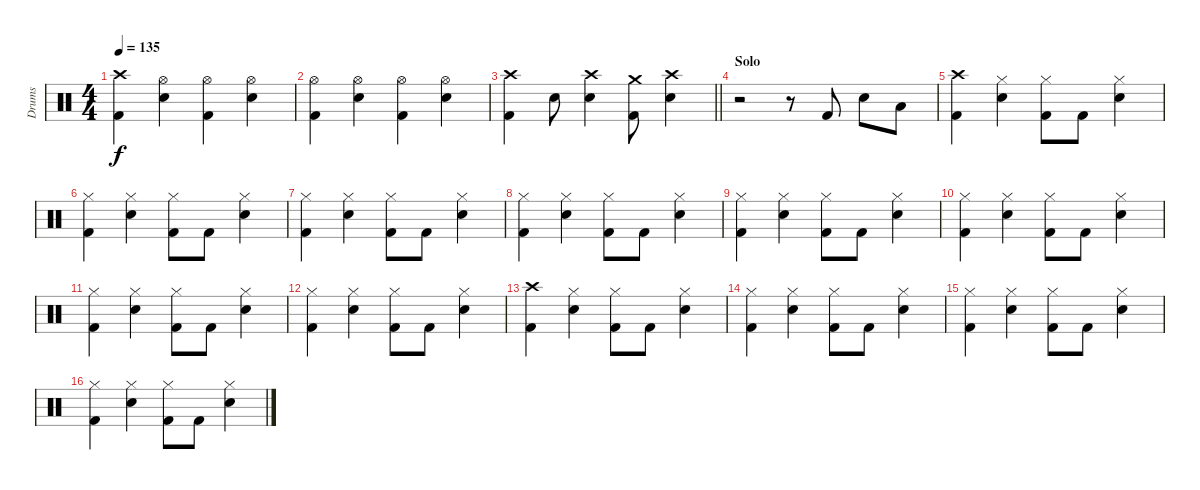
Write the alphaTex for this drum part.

\track ("Drums" "Drums") {instrument percussion}
\staff {score}
\articulation defaults
\ts (4 4)
\tempo 135
\clef neutral
\ks c
("Crash high (hit)" "Kick (hit) 2").4{dy f} ("Hi-Hat (open)" "Snare (hit) 2").4 ("Hi-Hat (open)" "Kick (hit) 2").4 ("Hi-Hat (open)" "Snare (hit) 2").4 |
("Hi-Hat (open)" "Kick (hit) 2").4 ("Hi-Hat (open)" "Snare (hit) 2").4 ("Hi-Hat (open)" "Kick (hit) 2").4 ("Hi-Hat (open)" "Snare (hit) 2").4 |
\barLineRight lightlight
("Crash high (hit)" "Kick (hit) 2").4 "Snare (hit) 2".8 ("Crash high (hit)" "Snare (hit) 2").4 ("Crash medium (hit)" "Kick (hit) 2").8 ("Crash high (hit)" "Snare (hit) 2").4 |
\section ("" "Solo")
r.2 r.8 "Kick (hit) 2".8 "Snare (hit) 2".8 "Low Tom (hit)".8 |
("Crash high (hit)" "Kick (hit) 2").4 ("Hi-Hat (closed)" "Snare (hit) 2").4 ("Hi-Hat (closed)" "Kick (hit) 2").8 "Kick (hit) 2".8 ("Hi-Hat (closed)" "Snare (hit) 2").4 |
("Hi-Hat (closed)" "Kick (hit) 2").4 ("Hi-Hat (closed)" "Snare (hit) 2").4 ("Hi-Hat (closed)" "Kick (hit) 2").8 "Kick (hit) 2".8 ("Hi-Hat (closed)" "Snare (hit) 2").4 |
("Hi-Hat (closed)" "Kick (hit) 2").4 ("Hi-Hat (closed)" "Snare (hit) 2").4 ("Hi-Hat (closed)" "Kick (hit) 2").8 "Kick (hit) 2".8 ("Hi-Hat (closed)" "Snare (hit) 2").4 |
("Hi-Hat (closed)" "Kick (hit) 2").4 ("Hi-Hat (closed)" "Snare (hit) 2").4 ("Hi-Hat (closed)" "Kick (hit) 2").8 "Kick (hit) 2".8 ("Hi-Hat (closed)" "Snare (hit) 2").4 |
("Hi-Hat (closed)" "Kick (hit) 2").4 ("Hi-Hat (closed)" "Snare (hit) 2").4 ("Hi-Hat (closed)" "Kick (hit) 2").8 "Kick (hit) 2".8 ("Hi-Hat (closed)" "Snare (hit) 2").4 |
("Hi-Hat (closed)" "Kick (hit) 2").4 ("Hi-Hat (closed)" "Snare (hit) 2").4 ("Hi-Hat (closed)" "Kick (hit) 2").8 "Kick (hit) 2".8 ("Hi-Hat (closed)" "Snare (hit) 2").4 |
("Hi-Hat (closed)" "Kick (hit) 2").4 ("Hi-Hat (closed)" "Snare (hit) 2").4 ("Hi-Hat (closed)" "Kick (hit) 2").8 "Kick (hit) 2".8 ("Hi-Hat (closed)" "Snare (hit) 2").4 |
("Hi-Hat (closed)" "Kick (hit) 2").4 ("Hi-Hat (closed)" "Snare (hit) 2").4 ("Hi-Hat (closed)" "Kick (hit) 2").8 "Kick (hit) 2".8 ("Hi-Hat (closed)" "Snare (hit) 2").4 |
("Crash high (hit)" "Kick (hit) 2").4 ("Hi-Hat (closed)" "Snare (hit) 2").4 ("Hi-Hat (closed)" "Kick (hit) 2").8 "Kick (hit) 2".8 ("Hi-Hat (closed)" "Snare (hit) 2").4 |
("Hi-Hat (closed)" "Kick (hit) 2").4 ("Hi-Hat (closed)" "Snare (hit) 2").4 ("Hi-Hat (closed)" "Kick (hit) 2").8 "Kick (hit) 2".8 ("Hi-Hat (closed)" "Snare (hit) 2").4 |
("Hi-Hat (closed)" "Kick (hit) 2").4 ("Hi-Hat (closed)" "Snare (hit) 2").4 ("Hi-Hat (closed)" "Kick (hit) 2").8 "Kick (hit) 2".8 ("Hi-Hat (closed)" "Snare (hit) 2").4 |
("Hi-Hat (closed)" "Kick (hit) 2").4 ("Hi-Hat (closed)" "Snare (hit) 2").4 ("Hi-Hat (closed)" "Kick (hit) 2").8 "Kick (hit) 2".8 ("Hi-Hat (closed)" "Snare (hit) 2").4
